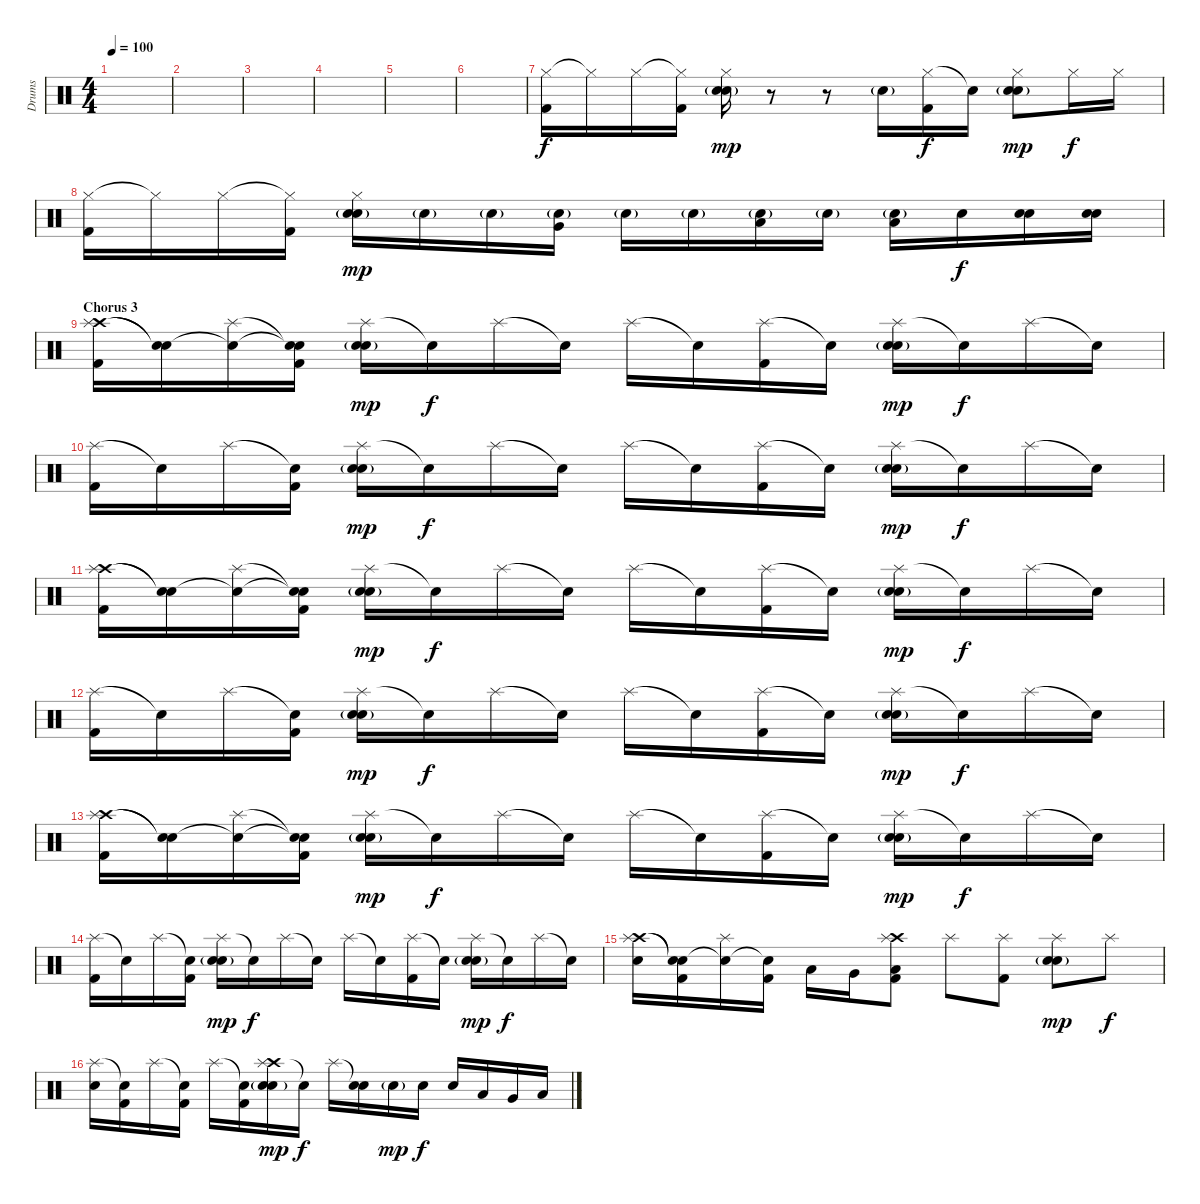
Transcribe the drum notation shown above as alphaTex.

\track ("Drums" "Drums") {instrument percussion}
\staff {score}
\articulation defaults
\ts (4 4)
\tempo 100
\clef neutral
\ks c
|
|
|
|
|
|
("Hi-Hat (closed)" "Kick (hit) 2").16 "Hi-Hat (closed)"{t}.16 "Hi-Hat (closed)".16 ("Hi-Hat (closed)"{t} "Kick (hit) 2").16 ("Hi-Hat (closed)" "Snare (hit) 2"{g} "Electric Snare (hit)").16{dy mp} r.8 r.8 "Electric Snare (hit)"{g}.16 ("Hi-Hat (closed)" "Kick (hit) 2").16{dy f} "Snare (hit)"{t}.16 ("Hi-Hat (closed)" "Snare (hit) 2"{g} "Electric Snare (hit)").8{dy mp} "Hi-Hat (closed)".16{dy f} "Hi-Hat (closed)".16 |
("Hi-Hat (closed)" "Kick (hit) 2").16 "Hi-Hat (closed)"{t}.16 "Hi-Hat (closed)".16 ("Hi-Hat (closed)"{t} "Kick (hit) 2").16 ("Hi-Hat (closed)" "Snare (hit) 2"{g} "Electric Snare (hit)").16{dy mp} "Electric Snare (hit)"{g}.16 "Electric Snare (hit)"{g}.16 ("Electric Snare (hit)"{g} "Very Low Tom (hit)").16 "Electric Snare (hit)"{g}.16 "Electric Snare (hit)"{g}.16 ("Electric Snare (hit)"{g} "Low Floor Tom (hit)").16 "Electric Snare (hit)"{g}.16 ("Electric Snare (hit)"{g} "Low Tom (hit)").16 "Electric Snare (hit)".16{dy f} ("Electric Snare (hit)" "Electric Snare (hit)").16 ("Electric Snare (hit)" "Electric Snare (hit)").16 |
\section ("" "Chorus 3")
("Crash high (hit)" "Splash (hit)" "Kick (hit) 2").16 ("Snare (hit)"{t} "Snare (hit)"{t}).16 ("Snare (hit)"{t} "Splash (hit)").16 ("Snare (hit)"{t} "Snare (hit)"{t} "Kick (hit) 2").16 ("Splash (hit)" "Snare (hit) 2"{g} "Electric Snare (hit)").16{dy mp} "Snare (hit)"{t}.16{dy f} "Splash (hit)".16 "Snare (hit)"{t}.16 "Splash (hit)".16 "Snare (hit)"{t}.16 ("Splash (hit)" "Kick (hit) 2").16 "Snare (hit)"{t}.16 ("Splash (hit)" "Snare (hit) 2"{g} "Electric Snare (hit)").16{dy mp} "Snare (hit)"{t}.16{dy f} "Splash (hit)".16 "Snare (hit)"{t}.16 |
("Splash (hit)" "Kick (hit) 2").16 "Snare (hit)"{t}.16 "Splash (hit)".16 ("Snare (hit)"{t} "Kick (hit) 2").16 ("Splash (hit)" "Snare (hit) 2"{g} "Electric Snare (hit)").16{dy mp} "Snare (hit)"{t}.16{dy f} "Splash (hit)".16 "Snare (hit)"{t}.16 "Splash (hit)".16 "Snare (hit)"{t}.16 ("Splash (hit)" "Kick (hit) 2").16 "Snare (hit)"{t}.16 ("Splash (hit)" "Snare (hit) 2"{g} "Electric Snare (hit)").16{dy mp} "Snare (hit)"{t}.16{dy f} "Splash (hit)".16 "Snare (hit)"{t}.16 |
("Crash high (hit)" "Splash (hit)" "Kick (hit) 2").16 ("Snare (hit)"{t} "Snare (hit)"{t}).16 ("Snare (hit)"{t} "Splash (hit)").16 ("Snare (hit)"{t} "Snare (hit)"{t} "Kick (hit) 2").16 ("Splash (hit)" "Snare (hit) 2"{g} "Electric Snare (hit)").16{dy mp} "Snare (hit)"{t}.16{dy f} "Splash (hit)".16 "Snare (hit)"{t}.16 "Splash (hit)".16 "Snare (hit)"{t}.16 ("Splash (hit)" "Kick (hit) 2").16 "Snare (hit)"{t}.16 ("Splash (hit)" "Snare (hit) 2"{g} "Electric Snare (hit)").16{dy mp} "Snare (hit)"{t}.16{dy f} "Splash (hit)".16 "Snare (hit)"{t}.16 |
("Splash (hit)" "Kick (hit) 2").16 "Snare (hit)"{t}.16 "Splash (hit)".16 ("Snare (hit)"{t} "Kick (hit) 2").16 ("Splash (hit)" "Snare (hit) 2"{g} "Electric Snare (hit)").16{dy mp} "Snare (hit)"{t}.16{dy f} "Splash (hit)".16 "Snare (hit)"{t}.16 "Splash (hit)".16 "Snare (hit)"{t}.16 ("Splash (hit)" "Kick (hit) 2").16 "Snare (hit)"{t}.16 ("Splash (hit)" "Snare (hit) 2"{g} "Electric Snare (hit)").16{dy mp} "Snare (hit)"{t}.16{dy f} "Splash (hit)".16 "Snare (hit)"{t}.16 |
("Crash high (hit)" "Splash (hit)" "Kick (hit) 2").16 ("Snare (hit)"{t} "Snare (hit)"{t}).16 ("Snare (hit)"{t} "Splash (hit)").16 ("Snare (hit)"{t} "Snare (hit)"{t} "Kick (hit) 2").16 ("Splash (hit)" "Snare (hit) 2"{g} "Electric Snare (hit)").16{dy mp} "Snare (hit)"{t}.16{dy f} "Splash (hit)".16 "Snare (hit)"{t}.16 "Splash (hit)".16 "Snare (hit)"{t}.16 ("Splash (hit)" "Kick (hit) 2").16 "Snare (hit)"{t}.16 ("Splash (hit)" "Snare (hit) 2"{g} "Electric Snare (hit)").16{dy mp} "Snare (hit)"{t}.16{dy f} "Splash (hit)".16 "Snare (hit)"{t}.16 |
("Splash (hit)" "Kick (hit) 2").16 "Snare (hit)"{t}.16 "Splash (hit)".16 ("Snare (hit)"{t} "Kick (hit) 2").16 ("Splash (hit)" "Snare (hit) 2"{g} "Electric Snare (hit)").16{dy mp} "Snare (hit)"{t}.16{dy f} "Splash (hit)".16 "Snare (hit)"{t}.16 "Splash (hit)".16 "Snare (hit)"{t}.16 ("Splash (hit)" "Kick (hit) 2").16 "Snare (hit)"{t}.16 ("Splash (hit)" "Snare (hit) 2"{g} "Electric Snare (hit)").16{dy mp} "Snare (hit)"{t}.16{dy f} "Splash (hit)".16 "Snare (hit)"{t}.16 |
("Crash high (hit)" "Splash (hit)" "Electric Snare (hit)").16 ("Snare (hit)"{t} "Snare (hit)"{t} "Kick (hit) 2").16 ("Snare (hit)"{t} "Splash (hit)").16 ("Snare (hit)"{t} "Kick (hit) 2").16 "Low Tom (hit)".16 "Very Low Tom (hit)".16 ("Crash high (hit)" "Splash (hit)" "Low Floor Tom (hit)" "Kick (hit) 2").8 "Splash (hit)".8 ("Splash (hit)" "Kick (hit) 2").8 ("Splash (hit)" "Snare (hit) 2"{g} "Electric Snare (hit)").8{dy mp} "Splash (hit)".8{dy f} |
("Splash (hit)" "Electric Snare (hit)").16 ("Snare (hit)"{t} "Kick (hit) 2").16 "Splash (hit)".16 ("Snare (hit)"{t} "Kick (hit) 2").16 "Splash (hit)".16 ("Snare (hit)"{t} "Kick (hit) 2").16 ("Crash high (hit)" "Splash (hit)" "Snare (hit) 2"{g} "Electric Snare (hit)").16{dy mp} "Snare (hit)"{t}.16{dy f} "Splash (hit)".16 ("Snare (hit)"{t} "Electric Snare (hit)").16 "Electric Snare (hit)"{g}.16{dy mp} "Electric Snare (hit)".16{dy f} "Electric Snare (hit)".16 "Low Tom (hit)".16 "Very Low Tom (hit)".16 "Low Floor Tom (hit)".16
